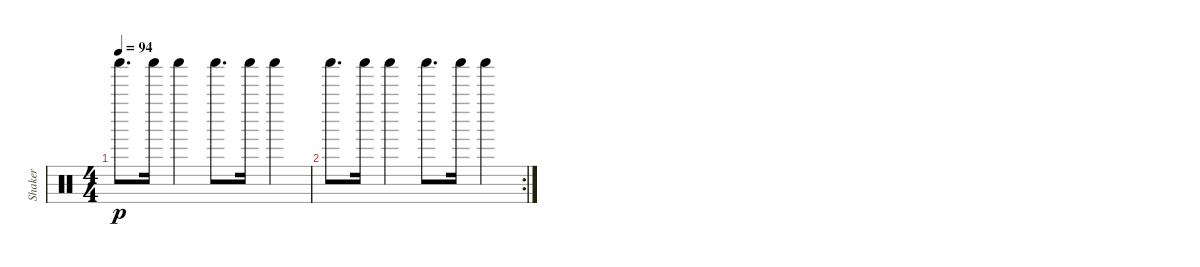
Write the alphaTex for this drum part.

\track ("Shaker" "Shaker") {instrument percussion}
\staff {score}
\articulation defaults
\ts (4 4)
\tempo 94
\clef neutral
\ks c "Shaker (hit)".8{d dy p} "Shaker (hit)".16 "Shaker (hit)".4 "Shaker (hit)".8{d} "Shaker (hit)".16 "Shaker (hit)".4
|
\rc 2 "Shaker (hit)".8{d} "Shaker (hit)".16 "Shaker (hit)".4 "Shaker (hit)".8{d} "Shaker (hit)".16 "Shaker (hit)".4
